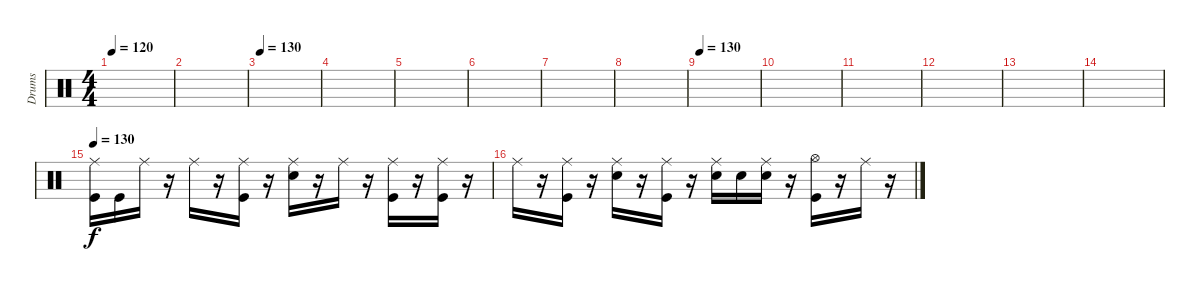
\track ("Drums" "Drums") {instrument percussion}
\staff {score}
\articulation defaults
\ts (4 4)
\tempo 120
\clef neutral
\ks c
|
|
\tempo 130
|
|
|
|
|
|
\tempo 130
|
|
|
|
|
|
\tempo 130
("Ride (middle)" "Kick (hit)").16 "Kick (hit)".16 "Ride (middle)".16 r.16 "Ride (middle)".16 r.16 ("Ride (middle)" "Kick (hit)").16 r.16 ("Ride (middle)" "Electric Snare (hit)").16 r.16 "Ride (middle)".16 r.16 ("Ride (middle)" "Kick (hit)").16 r.16 ("Ride (middle)" "Kick (hit)").16 r.16 |
"Ride (middle)".16 r.16 ("Ride (middle)" "Kick (hit)").16 r.16 ("Ride (middle)" "Electric Snare (hit)").16 r.16 ("Ride (middle)" "Kick (hit)").16 r.16 ("Ride (middle)" "Electric Snare (hit)").16 "Electric Snare (hit)".16 ("Ride (middle)" "Electric Snare (hit)").16 r.16 ("Hi-Hat (open)" "Kick (hit)").16 r.16 "Ride (middle)".16 r.16
